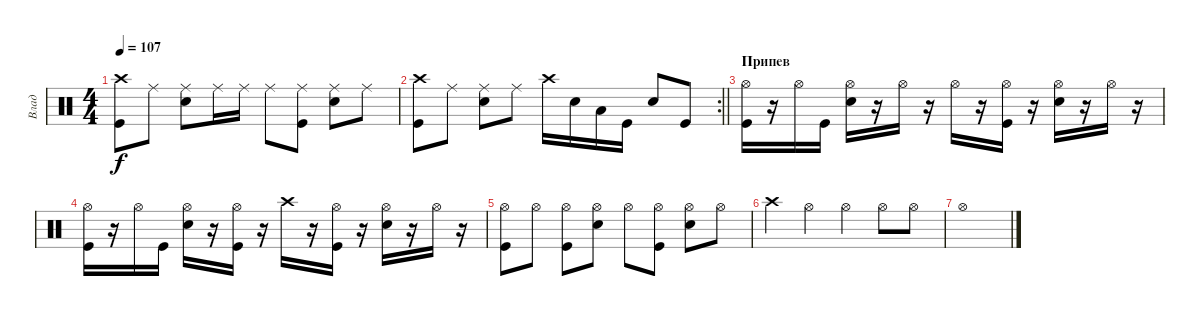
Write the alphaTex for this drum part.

\track ("Влад" "Влад") {instrument percussion}
\staff {score}
\articulation defaults
\ts (4 4)
\tempo 107
\clef neutral
\ks c
("Crash high (hit)" "Kick (hit)").8{dy f} "Ride (middle)".8 ("Ride (middle)" "Snare (hit) 2").8 "Ride (middle)".16 "Ride (middle)".16 "Ride (middle)".8 ("Ride (middle)" "Kick (hit)").8 ("Ride (middle)" "Snare (hit) 2").8 "Ride (middle)".8 |
\rc 2
\barLineRight lightlight
("Crash high (hit)" "Kick (hit)").8 "Ride (middle)".8 ("Ride (middle)" "Snare (hit) 2").8 "Ride (middle)".8 "Crash high (hit)".16 "Snare (hit) 2".16 "Low Floor Tom (hit)".16 "Kick (hit)".16 "Snare (hit) 2".8 "Kick (hit)".8 |
\section ("" "Припев")
("Hi-Hat (open)" "Kick (hit)").16 r.16 "Hi-Hat (open)".16 "Kick (hit)".16 ("Hi-Hat (open)" "Snare (hit) 2").16 r.16 "Hi-Hat (open)".16 r.16 "Hi-Hat (open)".16 r.16 ("Hi-Hat (open)" "Kick (hit)").16 r.16 ("Hi-Hat (open)" "Snare (hit) 2").16 r.16 "Hi-Hat (open)".16 r.16 |
("Hi-Hat (open)" "Kick (hit)").16 r.16 "Hi-Hat (open)".16 "Kick (hit)".16 ("Hi-Hat (open)" "Snare (hit) 2").16 r.16 ("Hi-Hat (open)" "Kick (hit)").16 r.16 "Crash high (hit)".16 r.16 ("Hi-Hat (open)" "Kick (hit)").16 r.16 ("Hi-Hat (open)" "Snare (hit) 2").16 r.16 "Hi-Hat (open)".16 r.16 |
("Hi-Hat (open)" "Kick (hit)").8 "Hi-Hat (open)".8 ("Hi-Hat (open)" "Kick (hit)").8 ("Hi-Hat (open)" "Snare (hit) 2").8 "Hi-Hat (open)".8 ("Hi-Hat (open)" "Kick (hit)").8 ("Hi-Hat (open)" "Snare (hit) 2").8 "Hi-Hat (open)".8 |
"Crash high (hit)".4 "Hi-Hat (open)".4 "Hi-Hat (open)".4 "Hi-Hat (open)".8 "Hi-Hat (open)".8 |
"Hi-Hat (open)".1
